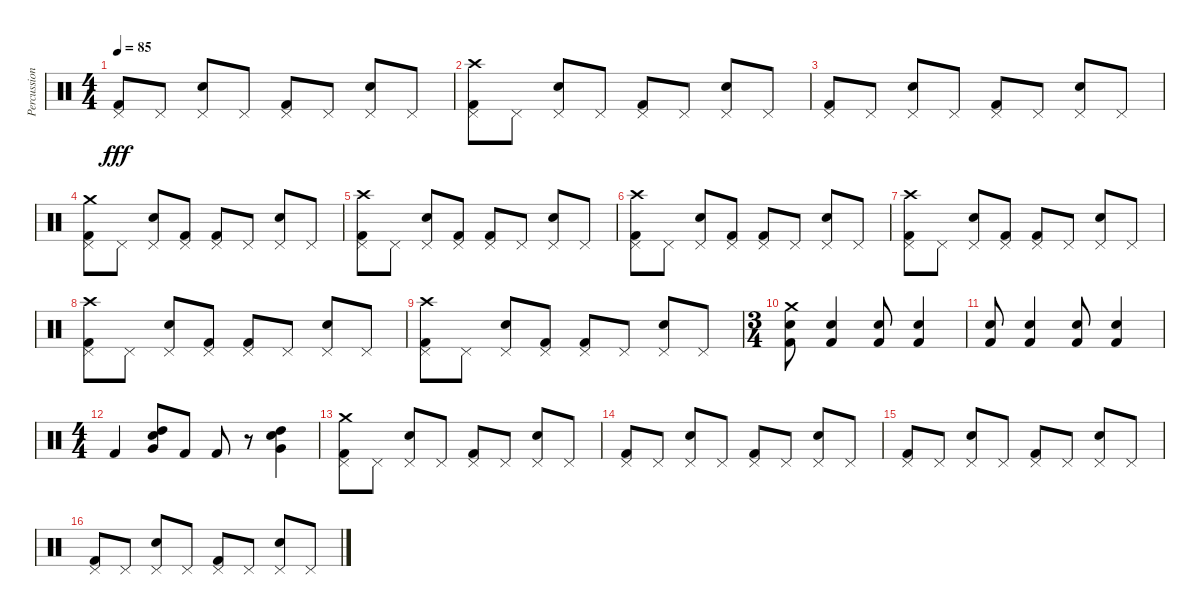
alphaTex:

\track ("Percussion" "Percussion") {instrument percussion}
\staff {score}
\articulation defaults
\ts (4 4)
\tempo 85
\clef neutral
\ks c
("Kick (hit) 2" "Pedal Hi-Hat (hit)").8{dy fff} "Pedal Hi-Hat (hit)".8 ("Pedal Hi-Hat (hit)" "Snare (hit) 2").8 "Pedal Hi-Hat (hit)".8 ("Kick (hit) 2" "Pedal Hi-Hat (hit)").8 "Pedal Hi-Hat (hit)".8 ("Pedal Hi-Hat (hit)" "Snare (hit) 2").8 "Pedal Hi-Hat (hit)".8 |
("Kick (hit) 2" "Crash high (hit)" "Pedal Hi-Hat (hit)").8 "Pedal Hi-Hat (hit)".8 ("Pedal Hi-Hat (hit)" "Snare (hit) 2").8 "Pedal Hi-Hat (hit)".8 ("Kick (hit) 2" "Pedal Hi-Hat (hit)").8 "Pedal Hi-Hat (hit)".8 ("Pedal Hi-Hat (hit)" "Snare (hit) 2").8 "Pedal Hi-Hat (hit)".8 |
("Kick (hit) 2" "Pedal Hi-Hat (hit)").8 "Pedal Hi-Hat (hit)".8 ("Pedal Hi-Hat (hit)" "Snare (hit) 2").8 "Pedal Hi-Hat (hit)".8 ("Kick (hit) 2" "Pedal Hi-Hat (hit)").8 "Pedal Hi-Hat (hit)".8 ("Pedal Hi-Hat (hit)" "Snare (hit) 2").8 "Pedal Hi-Hat (hit)".8 |
("Kick (hit) 2" "Crash medium (hit)" "Pedal Hi-Hat (hit)").8 "Pedal Hi-Hat (hit)".8 ("Pedal Hi-Hat (hit)" "Snare (hit) 2").8 ("Kick (hit) 2" "Pedal Hi-Hat (hit)").8 ("Kick (hit) 2" "Pedal Hi-Hat (hit)").8 "Pedal Hi-Hat (hit)".8 ("Pedal Hi-Hat (hit)" "Snare (hit) 2").8 "Pedal Hi-Hat (hit)".8 |
("Kick (hit) 2" "Crash high (hit)" "Pedal Hi-Hat (hit)").8 "Pedal Hi-Hat (hit)".8 ("Pedal Hi-Hat (hit)" "Snare (hit) 2").8 ("Kick (hit) 2" "Pedal Hi-Hat (hit)").8 ("Kick (hit) 2" "Pedal Hi-Hat (hit)").8 "Pedal Hi-Hat (hit)".8 ("Pedal Hi-Hat (hit)" "Snare (hit) 2").8 "Pedal Hi-Hat (hit)".8 |
("Kick (hit) 2" "Crash high (hit)" "Pedal Hi-Hat (hit)").8 "Pedal Hi-Hat (hit)".8 ("Pedal Hi-Hat (hit)" "Snare (hit) 2").8 ("Kick (hit) 2" "Pedal Hi-Hat (hit)").8 ("Kick (hit) 2" "Pedal Hi-Hat (hit)").8 "Pedal Hi-Hat (hit)".8 ("Pedal Hi-Hat (hit)" "Snare (hit) 2").8 "Pedal Hi-Hat (hit)".8 |
("Kick (hit) 2" "Crash high (hit)" "Pedal Hi-Hat (hit)").8 "Pedal Hi-Hat (hit)".8 ("Pedal Hi-Hat (hit)" "Snare (hit) 2").8 ("Kick (hit) 2" "Pedal Hi-Hat (hit)").8 ("Kick (hit) 2" "Pedal Hi-Hat (hit)").8 "Pedal Hi-Hat (hit)".8 ("Pedal Hi-Hat (hit)" "Snare (hit) 2").8 "Pedal Hi-Hat (hit)".8 |
("Kick (hit) 2" "Crash high (hit)" "Pedal Hi-Hat (hit)").8 "Pedal Hi-Hat (hit)".8 ("Pedal Hi-Hat (hit)" "Snare (hit) 2").8 ("Kick (hit) 2" "Pedal Hi-Hat (hit)").8 ("Kick (hit) 2" "Pedal Hi-Hat (hit)").8 "Pedal Hi-Hat (hit)".8 ("Pedal Hi-Hat (hit)" "Snare (hit) 2").8 "Pedal Hi-Hat (hit)".8 |
("Kick (hit) 2" "Crash high (hit)" "Pedal Hi-Hat (hit)").8 "Pedal Hi-Hat (hit)".8 ("Pedal Hi-Hat (hit)" "Snare (hit) 2").8 ("Kick (hit) 2" "Pedal Hi-Hat (hit)").8 ("Kick (hit) 2" "Pedal Hi-Hat (hit)").8 "Pedal Hi-Hat (hit)".8 ("Pedal Hi-Hat (hit)" "Snare (hit) 2").8 "Pedal Hi-Hat (hit)".8 |
\ts (3 4)
("Kick (hit) 2" "Crash medium (hit)" "Snare (hit) 2").8 ("Kick (hit) 2" "Snare (hit) 2").4 ("Kick (hit) 2" "Snare (hit) 2").8 ("Kick (hit) 2" "Snare (hit) 2").4 |
("Kick (hit) 2" "Snare (hit) 2").8 ("Kick (hit) 2" "Snare (hit) 2").4 ("Kick (hit) 2" "Snare (hit) 2").8 ("Kick (hit) 2" "Snare (hit) 2").4 |
\ts (4 4)
"Kick (hit) 2".4 ("Very Low Tom (hit)" "High Tom (hit)" "Snare (hit) 2").8 "Kick (hit) 2".8 "Kick (hit) 2".8 r.8 ("Very Low Tom (hit)" "High Tom (hit)" "Snare (hit) 2").4 |
("Kick (hit) 2" "Crash medium (hit)" "Pedal Hi-Hat (hit)").8 "Pedal Hi-Hat (hit)".8 ("Pedal Hi-Hat (hit)" "Snare (hit) 2").8 "Pedal Hi-Hat (hit)".8 ("Kick (hit) 2" "Pedal Hi-Hat (hit)").8 "Pedal Hi-Hat (hit)".8 ("Pedal Hi-Hat (hit)" "Snare (hit) 2").8 "Pedal Hi-Hat (hit)".8 |
("Kick (hit) 2" "Pedal Hi-Hat (hit)").8 "Pedal Hi-Hat (hit)".8 ("Pedal Hi-Hat (hit)" "Snare (hit) 2").8 "Pedal Hi-Hat (hit)".8 ("Kick (hit) 2" "Pedal Hi-Hat (hit)").8 "Pedal Hi-Hat (hit)".8 ("Pedal Hi-Hat (hit)" "Snare (hit) 2").8 "Pedal Hi-Hat (hit)".8 |
("Kick (hit) 2" "Pedal Hi-Hat (hit)").8 "Pedal Hi-Hat (hit)".8 ("Pedal Hi-Hat (hit)" "Snare (hit) 2").8 "Pedal Hi-Hat (hit)".8 ("Kick (hit) 2" "Pedal Hi-Hat (hit)").8 "Pedal Hi-Hat (hit)".8 ("Pedal Hi-Hat (hit)" "Snare (hit) 2").8 "Pedal Hi-Hat (hit)".8 |
("Kick (hit) 2" "Pedal Hi-Hat (hit)").8 "Pedal Hi-Hat (hit)".8 ("Pedal Hi-Hat (hit)" "Snare (hit) 2").8 "Pedal Hi-Hat (hit)".8 ("Kick (hit) 2" "Pedal Hi-Hat (hit)").8 "Pedal Hi-Hat (hit)".8 ("Pedal Hi-Hat (hit)" "Snare (hit) 2").8 "Pedal Hi-Hat (hit)".8
